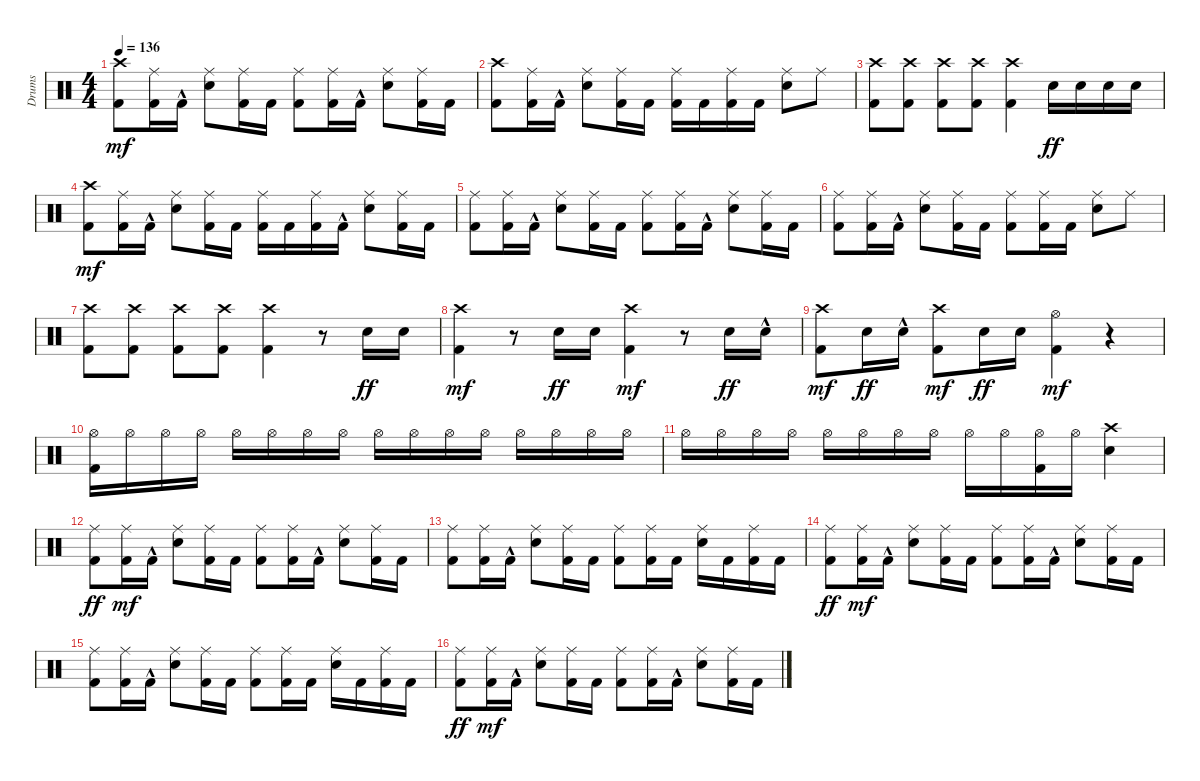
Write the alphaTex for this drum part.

\track ("Drums" "Drums") {instrument percussion}
\staff {score}
\articulation defaults
\ts (4 4)
\tempo 136
\clef neutral
\ks c
("Kick (hit) 2" "Crash high (hit)").8{dy mf} ("Kick (hit) 2" "Ride (middle)").16 "Kick (hit) 2"{hac}.16 ("Snare (hit) 2" "Ride (middle)").8 ("Kick (hit) 2" "Ride (middle)").16 "Kick (hit) 2".16 ("Kick (hit) 2" "Ride (middle)").8 ("Kick (hit) 2" "Ride (middle)").16 "Kick (hit) 2"{hac}.16 ("Snare (hit) 2" "Ride (middle)").8 ("Kick (hit) 2" "Ride (middle)").16 "Kick (hit) 2".16 |
("Kick (hit) 2" "Crash high (hit)").8 ("Kick (hit) 2" "Ride (middle)").16 "Kick (hit) 2"{hac}.16 ("Snare (hit) 2" "Ride (middle)").8 ("Kick (hit) 2" "Ride (middle)").16 "Kick (hit) 2".16 ("Kick (hit) 2" "Ride (middle)").16 "Kick (hit) 2".16 ("Kick (hit) 2" "Ride (middle)").16 "Kick (hit) 2".16 ("Snare (hit) 2" "Ride (middle)").8 "Ride (middle)".8 |
("Kick (hit) 2" "Crash high (hit)").8 ("Kick (hit) 2" "Crash high (hit)").8 ("Kick (hit) 2" "Crash high (hit)").8 ("Kick (hit) 2" "Crash high (hit)").8 ("Kick (hit) 2" "Crash high (hit)").4 "Snare (hit) 2".16{dy ff} "Snare (hit) 2".16 "Snare (hit) 2".16 "Snare (hit) 2".16 |
("Kick (hit) 2" "Crash high (hit)").8{dy mf} ("Kick (hit) 2" "Ride (middle)").16 "Kick (hit) 2"{hac}.16 ("Snare (hit) 2" "Ride (middle)").8 ("Kick (hit) 2" "Ride (middle)").16 "Kick (hit) 2".16 ("Kick (hit) 2" "Ride (middle)").16 "Kick (hit) 2".16 ("Kick (hit) 2" "Ride (middle)").16 "Kick (hit) 2"{hac}.16 ("Snare (hit) 2" "Ride (middle)").8 ("Kick (hit) 2" "Ride (middle)").16 "Kick (hit) 2".16 |
("Kick (hit) 2" "Ride (middle)").8 ("Kick (hit) 2" "Ride (middle)").16 "Kick (hit) 2"{hac}.16 ("Snare (hit) 2" "Ride (middle)").8 ("Kick (hit) 2" "Ride (middle)").16 "Kick (hit) 2".16 ("Kick (hit) 2" "Ride (middle)").8 ("Kick (hit) 2" "Ride (middle)").16 "Kick (hit) 2"{hac}.16 ("Snare (hit) 2" "Ride (middle)").8 ("Kick (hit) 2" "Ride (middle)").16 "Kick (hit) 2".16 |
("Kick (hit) 2" "Ride (middle)").8 ("Kick (hit) 2" "Ride (middle)").16 "Kick (hit) 2"{hac}.16 ("Snare (hit) 2" "Ride (middle)").8 ("Kick (hit) 2" "Ride (middle)").16 "Kick (hit) 2".16 ("Kick (hit) 2" "Ride (middle)").8 ("Kick (hit) 2" "Ride (middle)").16 "Kick (hit) 2".16 ("Snare (hit) 2" "Ride (middle)").8 "Ride (middle)".8 |
("Kick (hit) 2" "Crash high (hit)").8 ("Kick (hit) 2" "Crash high (hit)").8 ("Kick (hit) 2" "Crash high (hit)").8 ("Kick (hit) 2" "Crash high (hit)").8 ("Kick (hit) 2" "Crash high (hit)").4 r.8 "Snare (hit) 2".16{dy ff} "Snare (hit) 2".16 |
("Kick (hit) 2" "Crash high (hit)").4{dy mf} r.8 "Snare (hit) 2".16{dy ff} "Snare (hit) 2".16 ("Kick (hit) 2" "Crash high (hit)").4{dy mf} r.8 "Snare (hit) 2".16{dy ff} "Snare (hit) 2"{hac}.16 |
("Kick (hit) 2" "Crash high (hit)").8{dy mf} "Snare (hit) 2".16{dy ff} "Snare (hit) 2"{hac}.16 ("Kick (hit) 2" "Crash high (hit)").8{dy mf} "Snare (hit) 2".16{dy ff} "Snare (hit) 2".16 ("Kick (hit) 2" "Hi-Hat (open)").4{dy mf} r.4 |
("Kick (hit) 2" "Hi-Hat (open)").16 "Hi-Hat (open)".16 "Hi-Hat (open)".16 "Hi-Hat (open)".16 "Hi-Hat (open)".16 "Hi-Hat (open)".16 "Hi-Hat (open)".16 "Hi-Hat (open)".16 "Hi-Hat (open)".16 "Hi-Hat (open)".16 "Hi-Hat (open)".16 "Hi-Hat (open)".16 "Hi-Hat (open)".16 "Hi-Hat (open)".16 "Hi-Hat (open)".16 "Hi-Hat (open)".16 |
"Hi-Hat (open)".16 "Hi-Hat (open)".16 "Hi-Hat (open)".16 "Hi-Hat (open)".16 "Hi-Hat (open)".16 "Hi-Hat (open)".16 "Hi-Hat (open)".16 "Hi-Hat (open)".16 "Hi-Hat (open)".16 "Hi-Hat (open)".16 ("Kick (hit) 2" "Hi-Hat (open)").16 "Hi-Hat (open)".16 ("Snare (hit) 2" "Crash high (hit)").4 |
("Kick (hit) 2" "Ride (middle)").8{dy ff} ("Kick (hit) 2" "Ride (middle)").16{dy mf} "Kick (hit) 2"{hac}.16 ("Snare (hit) 2" "Ride (middle)").8 ("Kick (hit) 2" "Ride (middle)").16 "Kick (hit) 2".16 ("Kick (hit) 2" "Ride (middle)").8 ("Kick (hit) 2" "Ride (middle)").16 "Kick (hit) 2"{hac}.16 ("Snare (hit) 2" "Ride (middle)").8 ("Kick (hit) 2" "Ride (middle)").16 "Kick (hit) 2".16 |
("Kick (hit) 2" "Ride (middle)").8 ("Kick (hit) 2" "Ride (middle)").16 "Kick (hit) 2"{hac}.16 ("Snare (hit) 2" "Ride (middle)").8 ("Kick (hit) 2" "Ride (middle)").16 "Kick (hit) 2".16 ("Kick (hit) 2" "Ride (middle)").8 ("Kick (hit) 2" "Ride (middle)").16 "Kick (hit) 2".16 ("Snare (hit) 2" "Ride (middle)").16 "Kick (hit) 2".16 ("Kick (hit) 2" "Ride (middle)").16 "Kick (hit) 2".16 |
("Kick (hit) 2" "Ride (middle)").8{dy ff} ("Kick (hit) 2" "Ride (middle)").16{dy mf} "Kick (hit) 2"{hac}.16 ("Snare (hit) 2" "Ride (middle)").8 ("Kick (hit) 2" "Ride (middle)").16 "Kick (hit) 2".16 ("Kick (hit) 2" "Ride (middle)").8 ("Kick (hit) 2" "Ride (middle)").16 "Kick (hit) 2"{hac}.16 ("Snare (hit) 2" "Ride (middle)").8 ("Kick (hit) 2" "Ride (middle)").16 "Kick (hit) 2".16 |
("Kick (hit) 2" "Ride (middle)").8 ("Kick (hit) 2" "Ride (middle)").16 "Kick (hit) 2"{hac}.16 ("Snare (hit) 2" "Ride (middle)").8 ("Kick (hit) 2" "Ride (middle)").16 "Kick (hit) 2".16 ("Kick (hit) 2" "Ride (middle)").8 ("Kick (hit) 2" "Ride (middle)").16 "Kick (hit) 2".16 ("Snare (hit) 2" "Ride (middle)").16 "Kick (hit) 2".16 ("Kick (hit) 2" "Ride (middle)").16 "Kick (hit) 2".16 |
("Kick (hit) 2" "Ride (middle)").8{dy ff} ("Kick (hit) 2" "Ride (middle)").16{dy mf} "Kick (hit) 2"{hac}.16 ("Snare (hit) 2" "Ride (middle)").8 ("Kick (hit) 2" "Ride (middle)").16 "Kick (hit) 2".16 ("Kick (hit) 2" "Ride (middle)").8 ("Kick (hit) 2" "Ride (middle)").16 "Kick (hit) 2"{hac}.16 ("Snare (hit) 2" "Ride (middle)").8 ("Kick (hit) 2" "Ride (middle)").16 "Kick (hit) 2".16
